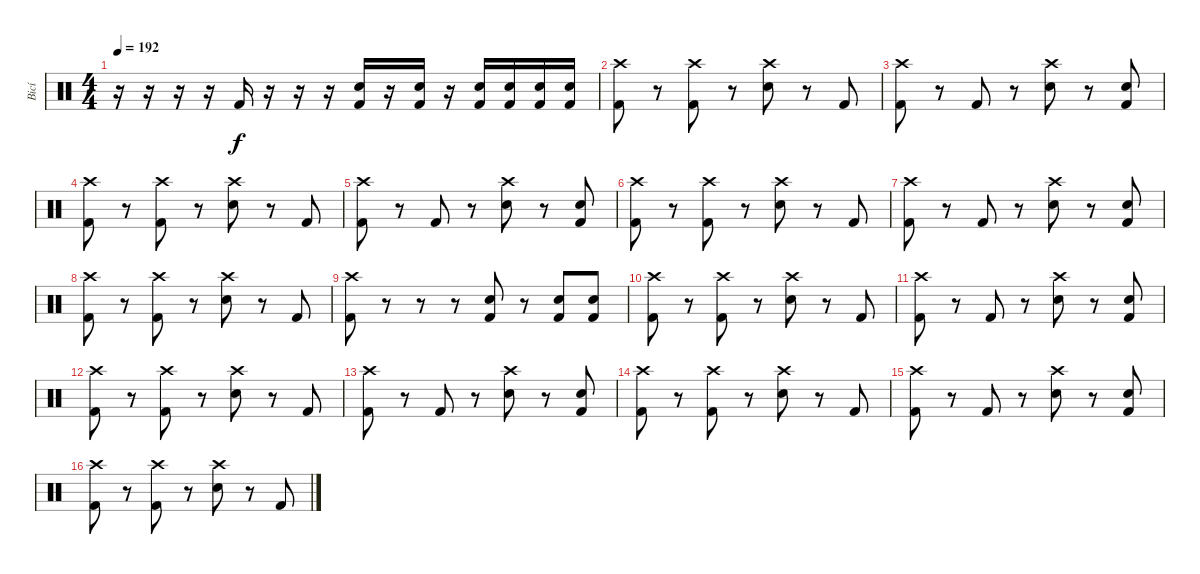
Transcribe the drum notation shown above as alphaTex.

\track ("Bicí" "Bicí") {instrument percussion}
\staff {score}
\articulation defaults
\ts (4 4)
\tempo 192
\clef neutral
\ks c
r.16{dy f} r.16 r.16 r.16 "Kick (hit) 2".16 r.16 r.16 r.16 ("Electric Snare (hit)" "Kick (hit) 2").16 r.16 ("Electric Snare (hit)" "Kick (hit) 2").16 r.16 ("Electric Snare (hit)" "Kick (hit) 2").16 ("Electric Snare (hit)" "Kick (hit) 2").16 ("Electric Snare (hit)" "Kick (hit) 2").16 ("Electric Snare (hit)" "Kick (hit) 2").16 |
("Crash high (hit)" "Kick (hit) 2").8 r.8 ("Crash high (hit)" "Kick (hit) 2").8 r.8 ("Crash high (hit)" "Electric Snare (hit)").8 r.8 "Kick (hit) 2".8 |
("Crash high (hit)" "Kick (hit) 2").8 r.8 "Kick (hit) 2".8 r.8 ("Crash high (hit)" "Electric Snare (hit)").8 r.8 ("Electric Snare (hit)" "Kick (hit) 2").8 |
("Crash high (hit)" "Kick (hit) 2").8 r.8 ("Crash high (hit)" "Kick (hit) 2").8 r.8 ("Crash high (hit)" "Electric Snare (hit)").8 r.8 "Kick (hit) 2".8 |
("Crash high (hit)" "Kick (hit) 2").8 r.8 "Kick (hit) 2".8 r.8 ("Crash high (hit)" "Electric Snare (hit)").8 r.8 ("Electric Snare (hit)" "Kick (hit) 2").8 |
("Crash high (hit)" "Kick (hit) 2").8 r.8 ("Crash high (hit)" "Kick (hit) 2").8 r.8 ("Crash high (hit)" "Electric Snare (hit)").8 r.8 "Kick (hit) 2".8 |
("Crash high (hit)" "Kick (hit) 2").8 r.8 "Kick (hit) 2".8 r.8 ("Crash high (hit)" "Electric Snare (hit)").8 r.8 ("Electric Snare (hit)" "Kick (hit) 2").8 |
("Crash high (hit)" "Kick (hit) 2").8 r.8 ("Crash high (hit)" "Kick (hit) 2").8 r.8 ("Crash high (hit)" "Electric Snare (hit)").8 r.8 "Kick (hit) 2".8 |
("Crash high (hit)" "Kick (hit) 2").8 r.8 r.8 r.8 ("Electric Snare (hit)" "Kick (hit) 2").8 r.8 ("Electric Snare (hit)" "Kick (hit) 2").8 ("Electric Snare (hit)" "Kick (hit) 2").8 |
("Crash high (hit)" "Kick (hit) 2").8 r.8 ("Crash high (hit)" "Kick (hit) 2").8 r.8 ("Crash high (hit)" "Electric Snare (hit)").8 r.8 "Kick (hit) 2".8 |
("Crash high (hit)" "Kick (hit) 2").8 r.8 "Kick (hit) 2".8 r.8 ("Crash high (hit)" "Electric Snare (hit)").8 r.8 ("Electric Snare (hit)" "Kick (hit) 2").8 |
("Crash high (hit)" "Kick (hit) 2").8 r.8 ("Crash high (hit)" "Kick (hit) 2").8 r.8 ("Crash high (hit)" "Electric Snare (hit)").8 r.8 "Kick (hit) 2".8 |
("Crash high (hit)" "Kick (hit) 2").8 r.8 "Kick (hit) 2".8 r.8 ("Crash high (hit)" "Electric Snare (hit)").8 r.8 ("Electric Snare (hit)" "Kick (hit) 2").8 |
("Crash high (hit)" "Kick (hit) 2").8 r.8 ("Crash high (hit)" "Kick (hit) 2").8 r.8 ("Crash high (hit)" "Electric Snare (hit)").8 r.8 "Kick (hit) 2".8 |
("Crash high (hit)" "Kick (hit) 2").8 r.8 "Kick (hit) 2".8 r.8 ("Crash high (hit)" "Electric Snare (hit)").8 r.8 ("Electric Snare (hit)" "Kick (hit) 2").8 |
("Crash high (hit)" "Kick (hit) 2").8 r.8 ("Crash high (hit)" "Kick (hit) 2").8 r.8 ("Crash high (hit)" "Electric Snare (hit)").8 r.8 "Kick (hit) 2".8
